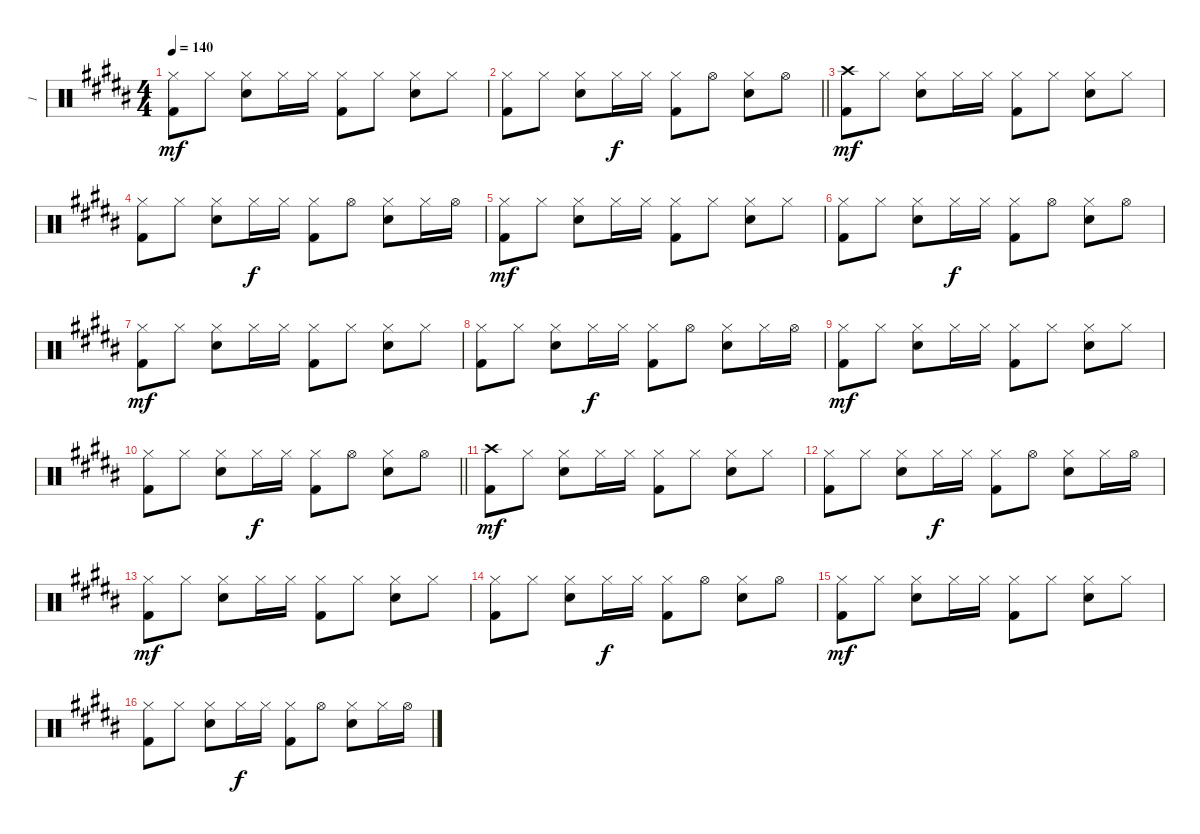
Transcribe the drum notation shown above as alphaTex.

\track ("1" "1") {instrument percussion}
\staff {score}
\articulation defaults
\ts (4 4)
\tempo 140
\clef neutral
\ks b
("Hi-Hat (closed)" "Kick (hit) 2").8{dy mf} "Hi-Hat (closed)".8 ("Hi-Hat (closed)" "Snare (hit) 2").8 "Hi-Hat (closed)".16 "Hi-Hat (closed)".16 ("Hi-Hat (closed)" "Kick (hit) 2").8 "Hi-Hat (closed)".8 ("Hi-Hat (closed)" "Snare (hit) 2").8 "Hi-Hat (closed)".8 |
\barLineRight lightlight
("Hi-Hat (closed)" "Kick (hit) 2").8 "Hi-Hat (closed)".8 ("Hi-Hat (closed)" "Snare (hit) 2").8 "Hi-Hat (closed)".16{dy f} "Hi-Hat (closed)".16 ("Hi-Hat (closed)" "Kick (hit) 2").8 "Hi-Hat (open)".8 ("Hi-Hat (closed)" "Snare (hit) 2").8 "Hi-Hat (open)".8 |
("Crash high (hit)" "Kick (hit) 2").8{dy mf} "Hi-Hat (closed)".8 ("Hi-Hat (closed)" "Snare (hit) 2").8 "Hi-Hat (closed)".16 "Hi-Hat (closed)".16 ("Hi-Hat (closed)" "Kick (hit) 2").8 "Hi-Hat (closed)".8 ("Hi-Hat (closed)" "Snare (hit) 2").8 "Hi-Hat (closed)".8 |
("Hi-Hat (closed)" "Kick (hit) 2").8 "Hi-Hat (closed)".8 ("Hi-Hat (closed)" "Snare (hit) 2").8 "Hi-Hat (closed)".16{dy f} "Hi-Hat (closed)".16 ("Hi-Hat (closed)" "Kick (hit) 2").8 "Hi-Hat (open)".8 ("Hi-Hat (closed)" "Snare (hit) 2").8 "Hi-Hat (closed)".16 "Hi-Hat (open)".16 |
("Hi-Hat (closed)" "Kick (hit) 2").8{dy mf} "Hi-Hat (closed)".8 ("Hi-Hat (closed)" "Snare (hit) 2").8 "Hi-Hat (closed)".16 "Hi-Hat (closed)".16 ("Hi-Hat (closed)" "Kick (hit) 2").8 "Hi-Hat (closed)".8 ("Hi-Hat (closed)" "Snare (hit) 2").8 "Hi-Hat (closed)".8 |
("Hi-Hat (closed)" "Kick (hit) 2").8 "Hi-Hat (closed)".8 ("Hi-Hat (closed)" "Snare (hit) 2").8 "Hi-Hat (closed)".16{dy f} "Hi-Hat (closed)".16 ("Hi-Hat (closed)" "Kick (hit) 2").8 "Hi-Hat (open)".8 ("Hi-Hat (closed)" "Snare (hit) 2").8 "Hi-Hat (open)".8 |
("Hi-Hat (closed)" "Kick (hit) 2").8{dy mf} "Hi-Hat (closed)".8 ("Hi-Hat (closed)" "Snare (hit) 2").8 "Hi-Hat (closed)".16 "Hi-Hat (closed)".16 ("Hi-Hat (closed)" "Kick (hit) 2").8 "Hi-Hat (closed)".8 ("Hi-Hat (closed)" "Snare (hit) 2").8 "Hi-Hat (closed)".8 |
("Hi-Hat (closed)" "Kick (hit) 2").8 "Hi-Hat (closed)".8 ("Hi-Hat (closed)" "Snare (hit) 2").8 "Hi-Hat (closed)".16{dy f} "Hi-Hat (closed)".16 ("Hi-Hat (closed)" "Kick (hit) 2").8 "Hi-Hat (open)".8 ("Hi-Hat (closed)" "Snare (hit) 2").8 "Hi-Hat (closed)".16 "Hi-Hat (open)".16 |
("Hi-Hat (closed)" "Kick (hit) 2").8{dy mf} "Hi-Hat (closed)".8 ("Hi-Hat (closed)" "Snare (hit) 2").8 "Hi-Hat (closed)".16 "Hi-Hat (closed)".16 ("Hi-Hat (closed)" "Kick (hit) 2").8 "Hi-Hat (closed)".8 ("Hi-Hat (closed)" "Snare (hit) 2").8 "Hi-Hat (closed)".8 |
\barLineRight lightlight
("Hi-Hat (closed)" "Kick (hit) 2").8 "Hi-Hat (closed)".8 ("Hi-Hat (closed)" "Snare (hit) 2").8 "Hi-Hat (closed)".16{dy f} "Hi-Hat (closed)".16 ("Hi-Hat (closed)" "Kick (hit) 2").8 "Hi-Hat (open)".8 ("Hi-Hat (closed)" "Snare (hit) 2").8 "Hi-Hat (open)".8 |
("Crash high (hit)" "Kick (hit) 2").8{dy mf} "Hi-Hat (closed)".8 ("Hi-Hat (closed)" "Snare (hit) 2").8 "Hi-Hat (closed)".16 "Hi-Hat (closed)".16 ("Hi-Hat (closed)" "Kick (hit) 2").8 "Hi-Hat (closed)".8 ("Hi-Hat (closed)" "Snare (hit) 2").8 "Hi-Hat (closed)".8 |
("Hi-Hat (closed)" "Kick (hit) 2").8 "Hi-Hat (closed)".8 ("Hi-Hat (closed)" "Snare (hit) 2").8 "Hi-Hat (closed)".16{dy f} "Hi-Hat (closed)".16 ("Hi-Hat (closed)" "Kick (hit) 2").8 "Hi-Hat (open)".8 ("Hi-Hat (closed)" "Snare (hit) 2").8 "Hi-Hat (closed)".16 "Hi-Hat (open)".16 |
("Hi-Hat (closed)" "Kick (hit) 2").8{dy mf} "Hi-Hat (closed)".8 ("Hi-Hat (closed)" "Snare (hit) 2").8 "Hi-Hat (closed)".16 "Hi-Hat (closed)".16 ("Hi-Hat (closed)" "Kick (hit) 2").8 "Hi-Hat (closed)".8 ("Hi-Hat (closed)" "Snare (hit) 2").8 "Hi-Hat (closed)".8 |
("Hi-Hat (closed)" "Kick (hit) 2").8 "Hi-Hat (closed)".8 ("Hi-Hat (closed)" "Snare (hit) 2").8 "Hi-Hat (closed)".16{dy f} "Hi-Hat (closed)".16 ("Hi-Hat (closed)" "Kick (hit) 2").8 "Hi-Hat (open)".8 ("Hi-Hat (closed)" "Snare (hit) 2").8 "Hi-Hat (open)".8 |
("Hi-Hat (closed)" "Kick (hit) 2").8{dy mf} "Hi-Hat (closed)".8 ("Hi-Hat (closed)" "Snare (hit) 2").8 "Hi-Hat (closed)".16 "Hi-Hat (closed)".16 ("Hi-Hat (closed)" "Kick (hit) 2").8 "Hi-Hat (closed)".8 ("Hi-Hat (closed)" "Snare (hit) 2").8 "Hi-Hat (closed)".8 |
("Hi-Hat (closed)" "Kick (hit) 2").8 "Hi-Hat (closed)".8 ("Hi-Hat (closed)" "Snare (hit) 2").8 "Hi-Hat (closed)".16{dy f} "Hi-Hat (closed)".16 ("Hi-Hat (closed)" "Kick (hit) 2").8 "Hi-Hat (open)".8 ("Hi-Hat (closed)" "Snare (hit) 2").8 "Hi-Hat (closed)".16 "Hi-Hat (open)".16
